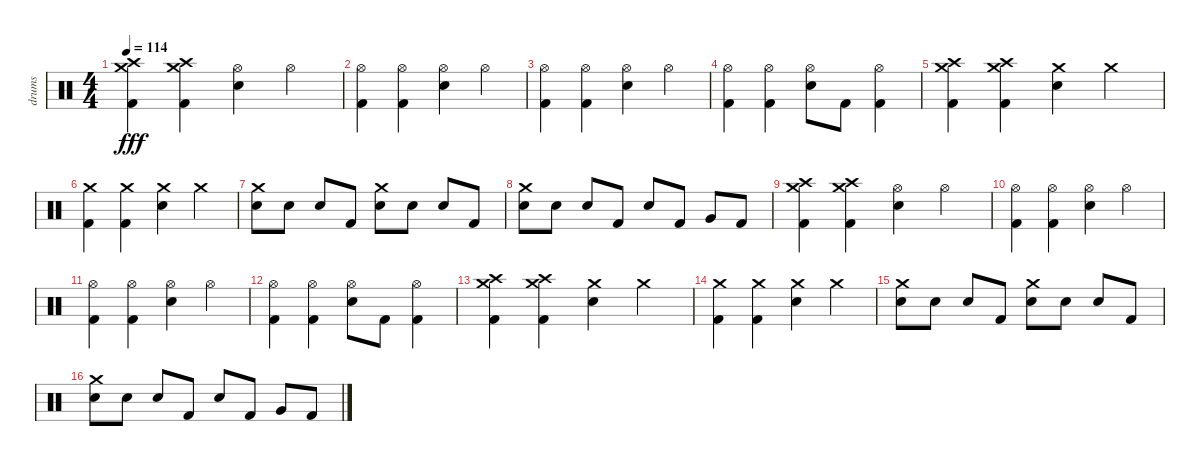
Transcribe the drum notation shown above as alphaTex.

\track ("drums" "drums") {instrument percussion}
\staff {score}
\articulation defaults
\ts (4 4)
\tempo 114
\clef neutral
\ks c
("Kick (hit) 2" "Crash high (hit)" "Crash medium (hit)").4{dy fff} ("Kick (hit) 2" "Crash high (hit)" "Crash medium (hit)").4 ("Hi-Hat (open)" "Snare (hit) 2").4 "Hi-Hat (open)".4 |
("Kick (hit) 2" "Hi-Hat (open)").4 ("Kick (hit) 2" "Hi-Hat (open)").4 ("Hi-Hat (open)" "Snare (hit) 2").4 "Hi-Hat (open)".4 |
("Kick (hit) 2" "Hi-Hat (open)").4 ("Kick (hit) 2" "Hi-Hat (open)").4 ("Hi-Hat (open)" "Snare (hit) 2").4 "Hi-Hat (open)".4 |
("Kick (hit) 2" "Hi-Hat (open)").4 ("Kick (hit) 2" "Hi-Hat (open)").4 ("Hi-Hat (open)" "Snare (hit) 2").8 "Kick (hit) 2".8 ("Kick (hit) 2" "Hi-Hat (open)").4 |
("Kick (hit) 2" "Crash high (hit)" "Crash medium (hit)").4 ("Kick (hit) 2" "Crash high (hit)" "Crash medium (hit)").4 ("Crash medium (hit)" "Snare (hit) 2").4 "Crash medium (hit)".4 |
("Kick (hit) 2" "Crash medium (hit)").4 ("Kick (hit) 2" "Crash medium (hit)").4 ("Crash medium (hit)" "Snare (hit) 2").4 "Crash medium (hit)".4 |
("Crash medium (hit)" "Snare (hit) 2").8 "Snare (hit) 2".8 "Snare (hit) 2".8 "Kick (hit) 2".8 ("Crash medium (hit)" "Snare (hit) 2").8 "Snare (hit) 2".8 "Snare (hit) 2".8 "Kick (hit) 2".8 |
("Crash medium (hit)" "Snare (hit) 2").8 "Snare (hit) 2".8 "Snare (hit) 2".8 "Kick (hit) 2".8 "Snare (hit) 2".8 "Kick (hit) 2".8 "Very Low Tom (hit)".8 "Kick (hit) 2".8 |
("Kick (hit) 2" "Crash high (hit)" "Crash medium (hit)").4 ("Kick (hit) 2" "Crash high (hit)" "Crash medium (hit)").4 ("Hi-Hat (open)" "Snare (hit) 2").4 "Hi-Hat (open)".4 |
("Kick (hit) 2" "Hi-Hat (open)").4 ("Kick (hit) 2" "Hi-Hat (open)").4 ("Hi-Hat (open)" "Snare (hit) 2").4 "Hi-Hat (open)".4 |
("Kick (hit) 2" "Hi-Hat (open)").4 ("Kick (hit) 2" "Hi-Hat (open)").4 ("Hi-Hat (open)" "Snare (hit) 2").4 "Hi-Hat (open)".4 |
("Kick (hit) 2" "Hi-Hat (open)").4 ("Kick (hit) 2" "Hi-Hat (open)").4 ("Hi-Hat (open)" "Snare (hit) 2").8 "Kick (hit) 2".8 ("Kick (hit) 2" "Hi-Hat (open)").4 |
("Kick (hit) 2" "Crash high (hit)" "Crash medium (hit)").4 ("Kick (hit) 2" "Crash high (hit)" "Crash medium (hit)").4 ("Crash medium (hit)" "Snare (hit) 2").4 "Crash medium (hit)".4 |
("Kick (hit) 2" "Crash medium (hit)").4 ("Kick (hit) 2" "Crash medium (hit)").4 ("Crash medium (hit)" "Snare (hit) 2").4 "Crash medium (hit)".4 |
("Crash medium (hit)" "Snare (hit) 2").8 "Snare (hit) 2".8 "Snare (hit) 2".8 "Kick (hit) 2".8 ("Crash medium (hit)" "Snare (hit) 2").8 "Snare (hit) 2".8 "Snare (hit) 2".8 "Kick (hit) 2".8 |
("Crash medium (hit)" "Snare (hit) 2").8 "Snare (hit) 2".8 "Snare (hit) 2".8 "Kick (hit) 2".8 "Snare (hit) 2".8 "Kick (hit) 2".8 "Very Low Tom (hit)".8 "Kick (hit) 2".8
